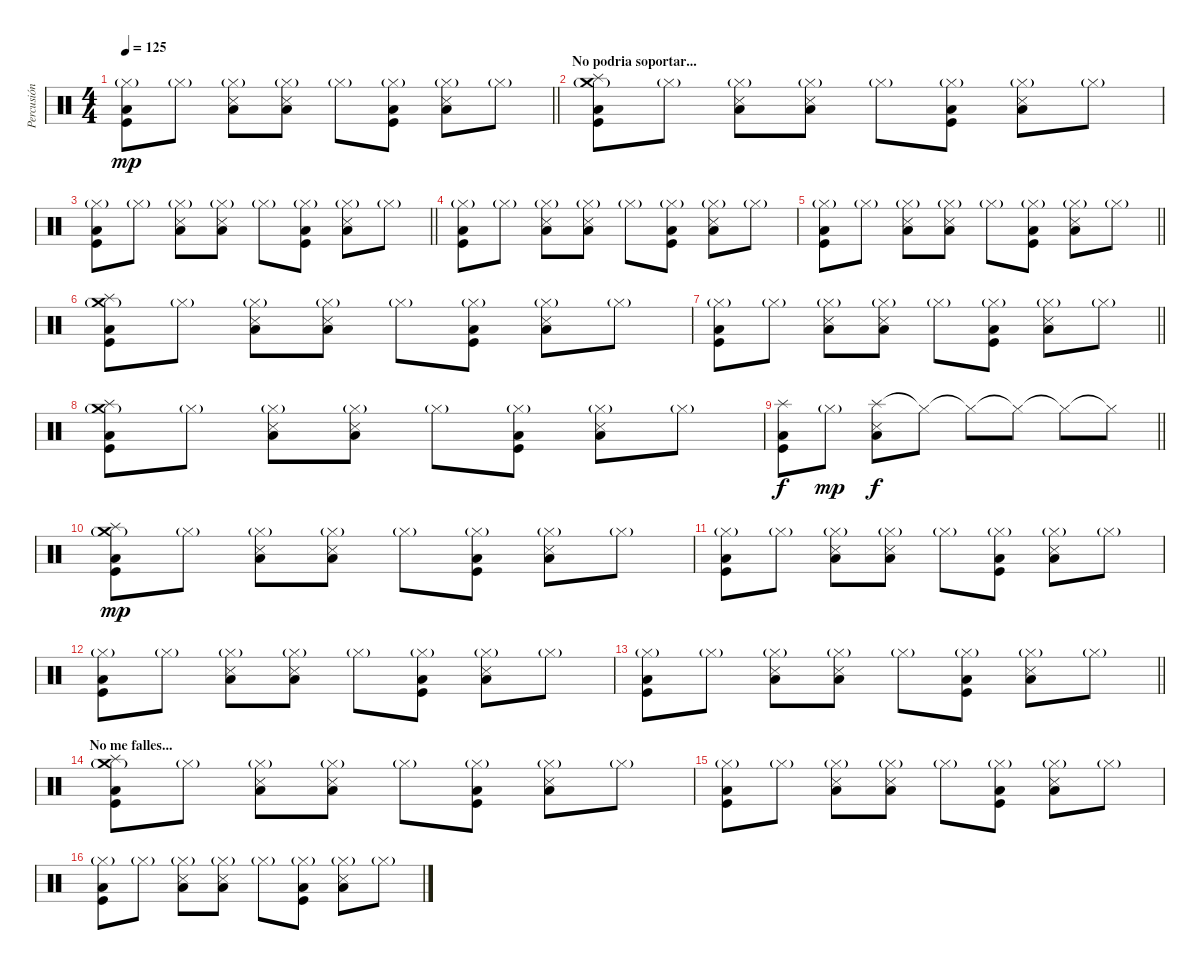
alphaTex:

\track ("Percusión" "Percusión") {instrument percussion}
\staff {score}
\articulation defaults
\ts (4 4)
\tempo 125
\clef neutral
\barLineRight lightlight
\ks c
("Hi-Hat (closed)"{g} "Low Floor Tom (hit)" "Kick (hit)").8{dy mp} "Hi-Hat (closed)"{g}.8 ("Hi-Hat (closed)"{g} "Low Floor Tom (hit)" "Snare (side stick) 3").8 ("Hi-Hat (closed)"{g} "Low Floor Tom (hit)" "Snare (side stick) 3").8 "Hi-Hat (closed)"{g}.8 ("Hi-Hat (closed)"{g} "Low Floor Tom (hit)" "Kick (hit)").8 ("Hi-Hat (closed)"{g} "Low Floor Tom (hit)" "Snare (side stick) 3").8 "Hi-Hat (closed)"{g}.8 |
\section ("" "No podria soportar...")
("Splash (hit)" "Crash medium (hit)"{g} "Low Floor Tom (hit)" "Kick (hit)").8 "Hi-Hat (closed)"{g}.8 ("Hi-Hat (closed)"{g} "Low Floor Tom (hit)" "Snare (side stick) 3").8 ("Hi-Hat (closed)"{g} "Low Floor Tom (hit)" "Snare (side stick) 3").8 "Hi-Hat (closed)"{g}.8 ("Hi-Hat (closed)"{g} "Low Floor Tom (hit)" "Kick (hit)").8 ("Hi-Hat (closed)"{g} "Low Floor Tom (hit)" "Snare (side stick) 3").8 "Hi-Hat (closed)"{g}.8 |
\barLineRight lightlight
("Hi-Hat (closed)"{g} "Low Floor Tom (hit)" "Kick (hit)").8 "Hi-Hat (closed)"{g}.8 ("Hi-Hat (closed)"{g} "Low Floor Tom (hit)" "Snare (side stick) 3").8 ("Hi-Hat (closed)"{g} "Low Floor Tom (hit)" "Snare (side stick) 3").8 "Hi-Hat (closed)"{g}.8 ("Hi-Hat (closed)"{g} "Low Floor Tom (hit)" "Kick (hit)").8 ("Hi-Hat (closed)"{g} "Low Floor Tom (hit)" "Snare (side stick) 3").8 "Hi-Hat (closed)"{g}.8 |
("Hi-Hat (closed)"{g} "Low Floor Tom (hit)" "Kick (hit)").8 "Hi-Hat (closed)"{g}.8 ("Hi-Hat (closed)"{g} "Low Floor Tom (hit)" "Snare (side stick) 3").8 ("Hi-Hat (closed)"{g} "Low Floor Tom (hit)" "Snare (side stick) 3").8 "Hi-Hat (closed)"{g}.8 ("Hi-Hat (closed)"{g} "Low Floor Tom (hit)" "Kick (hit)").8 ("Hi-Hat (closed)"{g} "Low Floor Tom (hit)" "Snare (side stick) 3").8 "Hi-Hat (closed)"{g}.8 |
\barLineRight lightlight
("Hi-Hat (closed)"{g} "Low Floor Tom (hit)" "Kick (hit)").8 "Hi-Hat (closed)"{g}.8 ("Hi-Hat (closed)"{g} "Low Floor Tom (hit)" "Snare (side stick) 3").8 ("Hi-Hat (closed)"{g} "Low Floor Tom (hit)" "Snare (side stick) 3").8 "Hi-Hat (closed)"{g}.8 ("Hi-Hat (closed)"{g} "Low Floor Tom (hit)" "Kick (hit)").8 ("Hi-Hat (closed)"{g} "Low Floor Tom (hit)" "Snare (side stick) 3").8 "Hi-Hat (closed)"{g}.8 |
("Splash (hit)" "Crash medium (hit)"{g} "Low Floor Tom (hit)" "Kick (hit)").8 "Hi-Hat (closed)"{g}.8 ("Hi-Hat (closed)"{g} "Low Floor Tom (hit)" "Snare (side stick) 3").8 ("Hi-Hat (closed)"{g} "Low Floor Tom (hit)" "Snare (side stick) 3").8 "Hi-Hat (closed)"{g}.8 ("Hi-Hat (closed)"{g} "Low Floor Tom (hit)" "Kick (hit)").8 ("Hi-Hat (closed)"{g} "Low Floor Tom (hit)" "Snare (side stick) 3").8 "Hi-Hat (closed)"{g}.8 |
\barLineRight lightlight
("Hi-Hat (closed)"{g} "Low Floor Tom (hit)" "Kick (hit)").8 "Hi-Hat (closed)"{g}.8 ("Hi-Hat (closed)"{g} "Low Floor Tom (hit)" "Snare (side stick) 3").8 ("Hi-Hat (closed)"{g} "Low Floor Tom (hit)" "Snare (side stick) 3").8 "Hi-Hat (closed)"{g}.8 ("Hi-Hat (closed)"{g} "Low Floor Tom (hit)" "Kick (hit)").8 ("Hi-Hat (closed)"{g} "Low Floor Tom (hit)" "Snare (side stick) 3").8 "Hi-Hat (closed)"{g}.8 |
("Splash (hit)" "Crash medium (hit)"{g} "Low Floor Tom (hit)" "Kick (hit)").8 "Hi-Hat (closed)"{g}.8 ("Hi-Hat (closed)"{g} "Low Floor Tom (hit)" "Snare (side stick) 3").8 ("Hi-Hat (closed)"{g} "Low Floor Tom (hit)" "Snare (side stick) 3").8 "Hi-Hat (closed)"{g}.8 ("Hi-Hat (closed)"{g} "Low Floor Tom (hit)" "Kick (hit)").8 ("Hi-Hat (closed)"{g} "Low Floor Tom (hit)" "Snare (side stick) 3").8 "Hi-Hat (closed)"{g}.8 |
\barLineRight lightlight
("Splash (hit)" "Low Floor Tom (hit)" "Kick (hit)").8{dy f} "Hi-Hat (closed)"{g}.8{dy mp} ("Splash (hit)" "Low Floor Tom (hit)" "Snare (side stick) 3").8{dy f} "Hi-Hat (closed)"{t}.8 "Hi-Hat (closed)"{t}.8 "Hi-Hat (closed)"{t}.8 "Hi-Hat (closed)"{t}.8 "Hi-Hat (closed)"{t}.8 |
("Splash (hit)" "Crash medium (hit)"{g} "Low Floor Tom (hit)" "Kick (hit)").8{dy mp} "Hi-Hat (closed)"{g}.8 ("Hi-Hat (closed)"{g} "Low Floor Tom (hit)" "Snare (side stick) 3").8 ("Hi-Hat (closed)"{g} "Low Floor Tom (hit)" "Snare (side stick) 3").8 "Hi-Hat (closed)"{g}.8 ("Hi-Hat (closed)"{g} "Low Floor Tom (hit)" "Kick (hit)").8 ("Hi-Hat (closed)"{g} "Low Floor Tom (hit)" "Snare (side stick) 3").8 "Hi-Hat (closed)"{g}.8 |
("Hi-Hat (closed)"{g} "Low Floor Tom (hit)" "Kick (hit)").8 "Hi-Hat (closed)"{g}.8 ("Hi-Hat (closed)"{g} "Low Floor Tom (hit)" "Snare (side stick) 3").8 ("Hi-Hat (closed)"{g} "Low Floor Tom (hit)" "Snare (side stick) 3").8 "Hi-Hat (closed)"{g}.8 ("Hi-Hat (closed)"{g} "Low Floor Tom (hit)" "Kick (hit)").8 ("Hi-Hat (closed)"{g} "Low Floor Tom (hit)" "Snare (side stick) 3").8 "Hi-Hat (closed)"{g}.8 |
("Hi-Hat (closed)"{g} "Low Floor Tom (hit)" "Kick (hit)").8 "Hi-Hat (closed)"{g}.8 ("Hi-Hat (closed)"{g} "Low Floor Tom (hit)" "Snare (side stick) 3").8 ("Hi-Hat (closed)"{g} "Low Floor Tom (hit)" "Snare (side stick) 3").8 "Hi-Hat (closed)"{g}.8 ("Hi-Hat (closed)"{g} "Low Floor Tom (hit)" "Kick (hit)").8 ("Hi-Hat (closed)"{g} "Low Floor Tom (hit)" "Snare (side stick) 3").8 "Hi-Hat (closed)"{g}.8 |
\barLineRight lightlight
("Hi-Hat (closed)"{g} "Low Floor Tom (hit)" "Kick (hit)").8 "Hi-Hat (closed)"{g}.8 ("Hi-Hat (closed)"{g} "Low Floor Tom (hit)" "Snare (side stick) 3").8 ("Hi-Hat (closed)"{g} "Low Floor Tom (hit)" "Snare (side stick) 3").8 "Hi-Hat (closed)"{g}.8 ("Hi-Hat (closed)"{g} "Low Floor Tom (hit)" "Kick (hit)").8 ("Hi-Hat (closed)"{g} "Low Floor Tom (hit)" "Snare (side stick) 3").8 "Hi-Hat (closed)"{g}.8 |
\section ("" "No me falles...")
("Splash (hit)" "Crash medium (hit)"{g} "Low Floor Tom (hit)" "Kick (hit)").8 "Hi-Hat (closed)"{g}.8 ("Hi-Hat (closed)"{g} "Low Floor Tom (hit)" "Snare (side stick) 3").8 ("Hi-Hat (closed)"{g} "Low Floor Tom (hit)" "Snare (side stick) 3").8 "Hi-Hat (closed)"{g}.8 ("Hi-Hat (closed)"{g} "Low Floor Tom (hit)" "Kick (hit)").8 ("Hi-Hat (closed)"{g} "Low Floor Tom (hit)" "Snare (side stick) 3").8 "Hi-Hat (closed)"{g}.8 |
("Hi-Hat (closed)"{g} "Low Floor Tom (hit)" "Kick (hit)").8 "Hi-Hat (closed)"{g}.8 ("Hi-Hat (closed)"{g} "Low Floor Tom (hit)" "Snare (side stick) 3").8 ("Hi-Hat (closed)"{g} "Low Floor Tom (hit)" "Snare (side stick) 3").8 "Hi-Hat (closed)"{g}.8 ("Hi-Hat (closed)"{g} "Low Floor Tom (hit)" "Kick (hit)").8 ("Hi-Hat (closed)"{g} "Low Floor Tom (hit)" "Snare (side stick) 3").8 "Hi-Hat (closed)"{g}.8 |
("Hi-Hat (closed)"{g} "Low Floor Tom (hit)" "Kick (hit)").8 "Hi-Hat (closed)"{g}.8 ("Hi-Hat (closed)"{g} "Low Floor Tom (hit)" "Snare (side stick) 3").8 ("Hi-Hat (closed)"{g} "Low Floor Tom (hit)" "Snare (side stick) 3").8 "Hi-Hat (closed)"{g}.8 ("Hi-Hat (closed)"{g} "Low Floor Tom (hit)" "Kick (hit)").8 ("Hi-Hat (closed)"{g} "Low Floor Tom (hit)" "Snare (side stick) 3").8 "Hi-Hat (closed)"{g}.8
